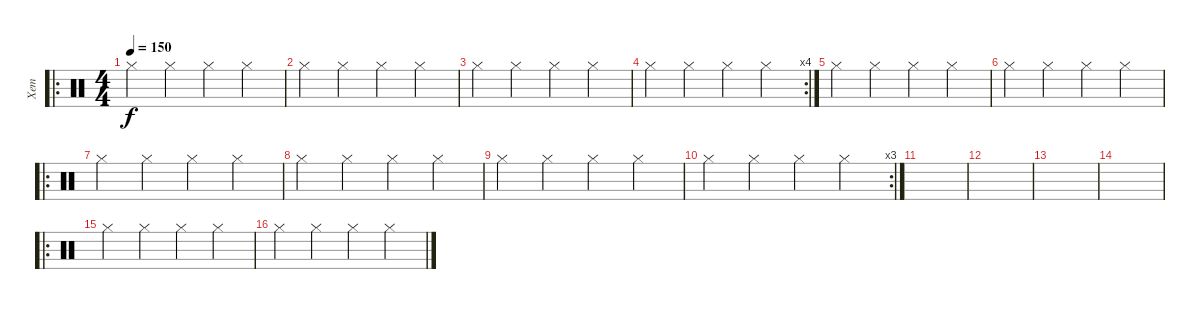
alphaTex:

\track ("Хет" "Хет") {instrument percussion}
\staff {score}
\articulation defaults
\ro
\ts (4 4)
\tempo 150
\clef neutral
\ks c "Hi-Hat (closed)".4{dy f} "Hi-Hat (closed)".4 "Hi-Hat (closed)".4 "Hi-Hat (closed)".4
|
"Hi-Hat (closed)".4 "Hi-Hat (closed)".4 "Hi-Hat (closed)".4 "Hi-Hat (closed)".4 |
"Hi-Hat (closed)".4 "Hi-Hat (closed)".4 "Hi-Hat (closed)".4 "Hi-Hat (closed)".4 |
\rc 4 "Hi-Hat (closed)".4 "Hi-Hat (closed)".4 "Hi-Hat (closed)".4 "Hi-Hat (closed)".4
|
"Hi-Hat (closed)".4 "Hi-Hat (closed)".4 "Hi-Hat (closed)".4 "Hi-Hat (closed)".4 |
"Hi-Hat (closed)".4 "Hi-Hat (closed)".4 "Hi-Hat (closed)".4 "Hi-Hat (closed)".4 |
\ro "Hi-Hat (closed)".4 "Hi-Hat (closed)".4 "Hi-Hat (closed)".4 "Hi-Hat (closed)".4
|
"Hi-Hat (closed)".4 "Hi-Hat (closed)".4 "Hi-Hat (closed)".4 "Hi-Hat (closed)".4 |
"Hi-Hat (closed)".4 "Hi-Hat (closed)".4 "Hi-Hat (closed)".4 "Hi-Hat (closed)".4 |
\rc 3 "Hi-Hat (closed)".4 "Hi-Hat (closed)".4 "Hi-Hat (closed)".4 "Hi-Hat (closed)".4
|
|
|
|
|
\ro "Hi-Hat (closed)".4 "Hi-Hat (closed)".4 "Hi-Hat (closed)".4 "Hi-Hat (closed)".4
|
"Hi-Hat (closed)".4 "Hi-Hat (closed)".4 "Hi-Hat (closed)".4 "Hi-Hat (closed)".4
